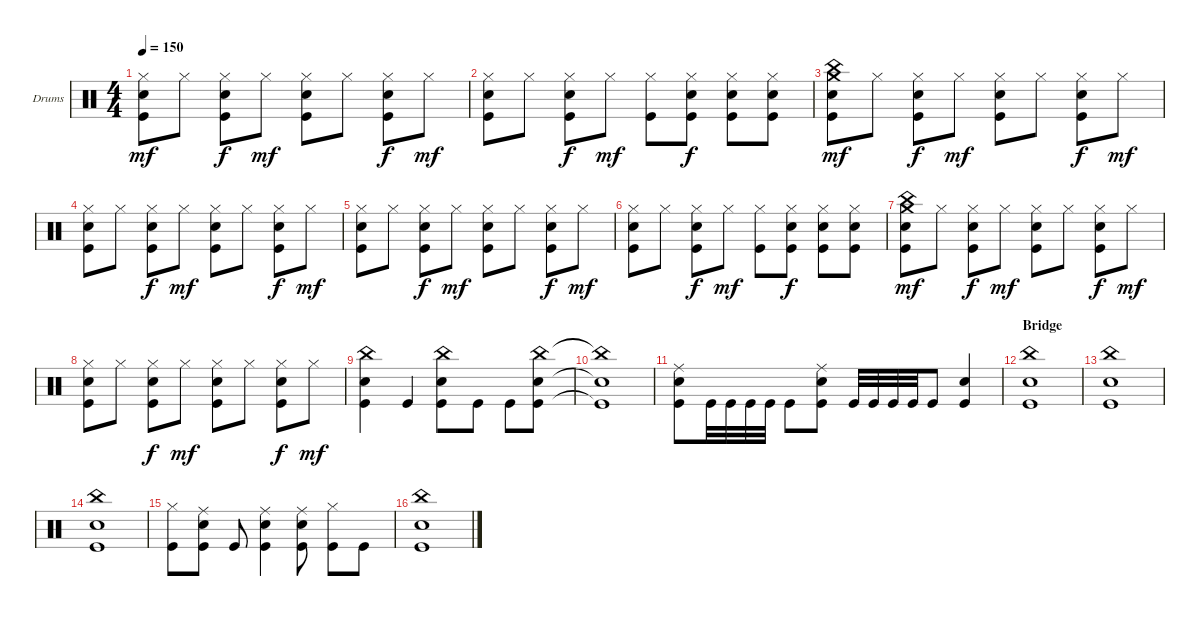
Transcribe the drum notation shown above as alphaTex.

\defaultSystemsLayout 4
\bracketExtendMode groupsimilarinstruments
\firstSystemTrackNameOrientation horizontal
\otherSystemsTrackNameOrientation horizontal
\track ("Drumkit" "Drums") {instrument percussion}
\staff {score}
\articulation defaults
\ts (4 4)
\tempo 150
\clef neutral
\ks c
("Snare (hit) 2" "Kick (hit)" "Hi-Hat (closed)").8{dy mf} "Hi-Hat (closed)".8 ("Kick (hit)" "Snare (hit) 2" "Hi-Hat (closed)").8{dy f} "Hi-Hat (closed)".8{dy mf} ("Kick (hit)" "Snare (hit) 2" "Hi-Hat (closed)").8 "Hi-Hat (closed)".8 ("Kick (hit)" "Snare (hit) 2" "Hi-Hat (closed)").8{dy f} "Hi-Hat (closed)".8{dy mf} |
("Snare (hit) 2" "Kick (hit)" "Hi-Hat (closed)").8 "Hi-Hat (closed)".8 ("Kick (hit)" "Snare (hit) 2" "Hi-Hat (closed)").8{dy f} "Hi-Hat (closed)".8{dy mf} ("Kick (hit)" "Hi-Hat (closed)").8 ("Kick (hit)" "Snare (hit) 2" "Hi-Hat (closed)").8{dy f} ("Kick (hit)" "Snare (hit) 2" "Hi-Hat (closed)").8 ("Kick (hit)" "Snare (hit) 2" "Hi-Hat (closed)").8 |
("Snare (hit) 2" "Kick (hit)" "Crash medium (hit)" "China (hit)").8{dy mf} "Hi-Hat (closed)".8 ("Kick (hit)" "Snare (hit) 2" "Hi-Hat (closed)").8{dy f} "Hi-Hat (closed)".8{dy mf} ("Kick (hit)" "Snare (hit) 2" "Hi-Hat (closed)").8 "Hi-Hat (closed)".8 ("Kick (hit)" "Snare (hit) 2" "Hi-Hat (closed)").8{dy f} "Hi-Hat (closed)".8{dy mf} |
("Snare (hit) 2" "Kick (hit)" "Hi-Hat (closed)").8 "Hi-Hat (closed)".8 ("Kick (hit)" "Snare (hit) 2" "Hi-Hat (closed)").8{dy f} "Hi-Hat (closed)".8{dy mf} ("Kick (hit)" "Snare (hit) 2" "Hi-Hat (closed)").8 "Hi-Hat (closed)".8 ("Kick (hit)" "Snare (hit) 2" "Hi-Hat (closed)").8{dy f} "Hi-Hat (closed)".8{dy mf} |
("Snare (hit) 2" "Kick (hit)" "Hi-Hat (closed)").8 "Hi-Hat (closed)".8 ("Kick (hit)" "Snare (hit) 2" "Hi-Hat (closed)").8{dy f} "Hi-Hat (closed)".8{dy mf} ("Kick (hit)" "Snare (hit) 2" "Hi-Hat (closed)").8 "Hi-Hat (closed)".8 ("Kick (hit)" "Snare (hit) 2" "Hi-Hat (closed)").8{dy f} "Hi-Hat (closed)".8{dy mf} |
("Snare (hit) 2" "Kick (hit)" "Hi-Hat (closed)").8 "Hi-Hat (closed)".8 ("Kick (hit)" "Snare (hit) 2" "Hi-Hat (closed)").8{dy f} "Hi-Hat (closed)".8{dy mf} ("Kick (hit)" "Hi-Hat (closed)").8 ("Kick (hit)" "Snare (hit) 2" "Hi-Hat (closed)").8{dy f} ("Kick (hit)" "Snare (hit) 2" "Hi-Hat (closed)").8 ("Kick (hit)" "Snare (hit) 2" "Hi-Hat (closed)").8 |
("Snare (hit) 2" "Kick (hit)" "Crash medium (hit)" "China (hit)").8{dy mf} "Hi-Hat (closed)".8 ("Kick (hit)" "Snare (hit) 2" "Hi-Hat (closed)").8{dy f} "Hi-Hat (closed)".8{dy mf} ("Kick (hit)" "Snare (hit) 2" "Hi-Hat (closed)").8 "Hi-Hat (closed)".8 ("Kick (hit)" "Snare (hit) 2" "Hi-Hat (closed)").8{dy f} "Hi-Hat (closed)".8{dy mf} |
("Snare (hit) 2" "Kick (hit)" "Hi-Hat (closed)").8 "Hi-Hat (closed)".8 ("Kick (hit)" "Snare (hit) 2" "Hi-Hat (closed)").8{dy f} "Hi-Hat (closed)".8{dy mf} ("Kick (hit)" "Snare (hit) 2" "Hi-Hat (closed)").8 "Hi-Hat (closed)".8 ("Kick (hit)" "Snare (hit) 2" "Hi-Hat (closed)").8{dy f} "Hi-Hat (closed)".8{dy mf} |
("Kick (hit)" "Snare (hit) 2" "China (hit)").4 "Kick (hit)".4 ("Kick (hit)" "Snare (hit) 2" "China (hit)").8 "Kick (hit)".8 "Kick (hit)".8 ("Kick (hit)" "Snare (hit) 2" "China (hit)").8 |
("Kick (hit)"{t} "Snare (hit) 2"{t} "China (hit)"{t}).1 |
("Kick (hit)" "Snare (hit) 2" "Ride (middle)").8 "Kick (hit)".32 "Kick (hit)".32 "Kick (hit)".32 "Kick (hit)".32 "Kick (hit)".8 ("Kick (hit)" "Snare (hit) 2" "Ride (middle)").8 "Kick (hit)".32 "Kick (hit)".32 "Kick (hit)".32 "Kick (hit)".32 "Kick (hit)".8 ("Kick (hit)" "Snare (hit) 2").4 |
\section ("" "Bridge")
("Kick (hit)" "Snare (hit) 2" "China (hit)").1 |
("Kick (hit)" "Snare (hit) 2" "China (hit)").1 |
("Kick (hit)" "Snare (hit) 2" "China (hit)").1 |
("Kick (hit)" "Hi-Hat (closed)").8 ("Kick (hit)" "Snare (hit) 2" "Ride (middle)").8 "Kick (hit)".8 ("Kick (hit)" "Snare (hit) 2" "Ride (middle)").4 ("Kick (hit)" "Snare (hit) 2" "Ride (middle)").8 ("Kick (hit)" "Hi-Hat (closed)").8 "Kick (hit)".8 |
("Kick (hit)" "Snare (hit) 2" "China (hit)").1
